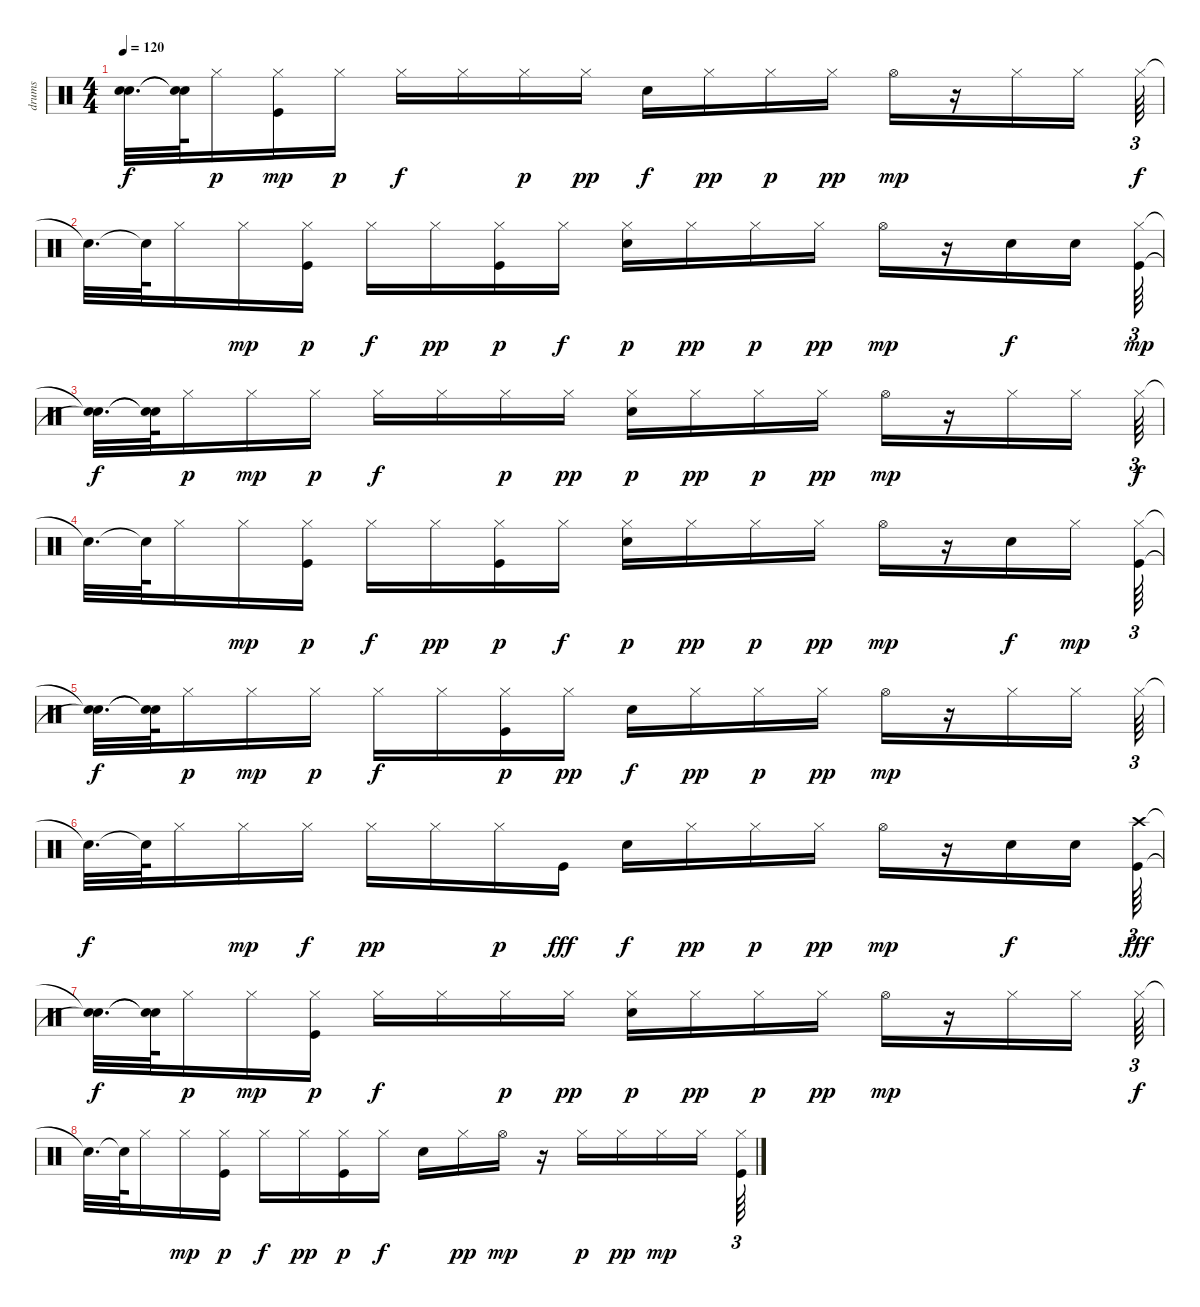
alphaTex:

\track ("drums" "drums") {instrument percussion}
\staff {score}
\articulation defaults
\ts (4 4)
\tempo 120
\clef neutral
\ks c
("Snare (hit)"{t} "Snare (hit)"{t}).32{d dy f} ("Snare (hit)"{t} "Snare (hit)"{t}).64 "Hi-Hat (closed)".16{dy p} ("Kick (hit)" "Hi-Hat (closed)").16{dy mp} "Hi-Hat (closed)".16{dy p} "Hi-Hat (closed)".16{dy f} "Hi-Hat (closed)".16 "Hi-Hat (closed)".16{dy p} "Hi-Hat (closed)".16{dy pp} "Snare (hit) 2".16{dy f} "Hi-Hat (closed)".16{dy pp} "Hi-Hat (closed)".16{dy p} "Hi-Hat (closed)".16{dy pp} "Hi-Hat (open)".16{dy mp} r.16 "Hi-Hat (closed)".16 "Hi-Hat (closed)".16 "Hi-Hat (closed)".64{tu (3 2) dy f} |
"Snare (hit)"{t}.32{d} "Snare (hit)"{t}.64 "Hi-Hat (closed)".16 "Hi-Hat (closed)".16{dy mp} ("Kick (hit)" "Hi-Hat (closed)").16{dy p} "Hi-Hat (closed)".16{dy f} "Hi-Hat (closed)".16{dy pp} ("Kick (hit)" "Hi-Hat (closed)").16{dy p} "Hi-Hat (closed)".16{dy f} ("Snare (hit) 2" "Hi-Hat (closed)").16{dy p} "Hi-Hat (closed)".16{dy pp} "Hi-Hat (closed)".16{dy p} "Hi-Hat (closed)".16{dy pp} "Hi-Hat (open)".16{dy mp} r.16 "Snare (hit) 2".16{dy f} "Snare (hit) 2".16 ("Kick (hit)" "Hi-Hat (closed)").64{tu (3 2) dy mp} |
("Snare (hit)"{t} "Snare (hit)"{t}).32{d dy f} ("Snare (hit)"{t} "Snare (hit)"{t}).64 "Hi-Hat (closed)".16{dy p} "Hi-Hat (closed)".16{dy mp} "Hi-Hat (closed)".16{dy p} "Hi-Hat (closed)".16{dy f} "Hi-Hat (closed)".16 "Hi-Hat (closed)".16{dy p} "Hi-Hat (closed)".16{dy pp} ("Snare (hit) 2" "Hi-Hat (closed)").16{dy p} "Hi-Hat (closed)".16{dy pp} "Hi-Hat (closed)".16{dy p} "Hi-Hat (closed)".16{dy pp} "Hi-Hat (open)".16{dy mp} r.16 "Hi-Hat (closed)".16 "Hi-Hat (closed)".16 "Hi-Hat (closed)".64{tu (3 2) dy f} |
"Snare (hit)"{t}.32{d} "Snare (hit)"{t}.64 "Hi-Hat (closed)".16 "Hi-Hat (closed)".16{dy mp} ("Kick (hit)" "Hi-Hat (closed)").16{dy p} "Hi-Hat (closed)".16{dy f} "Hi-Hat (closed)".16{dy pp} ("Kick (hit)" "Hi-Hat (closed)").16{dy p} "Hi-Hat (closed)".16{dy f} ("Snare (hit) 2" "Hi-Hat (closed)").16{dy p} "Hi-Hat (closed)".16{dy pp} "Hi-Hat (closed)".16{dy p} "Hi-Hat (closed)".16{dy pp} "Hi-Hat (open)".16{dy mp} r.16 "Snare (hit) 2".16{dy f} "Hi-Hat (closed)".16{dy mp} ("Kick (hit)" "Hi-Hat (closed)").64{tu (3 2)} |
("Snare (hit)"{t} "Snare (hit)"{t}).32{d dy f} ("Snare (hit)"{t} "Snare (hit)"{t}).64 "Hi-Hat (closed)".16{dy p} "Hi-Hat (closed)".16{dy mp} "Hi-Hat (closed)".16{dy p} "Hi-Hat (closed)".16{dy f} "Hi-Hat (closed)".16 ("Kick (hit)" "Hi-Hat (closed)").16{dy p} "Hi-Hat (closed)".16{dy pp} "Snare (hit) 2".16{dy f} "Hi-Hat (closed)".16{dy pp} "Hi-Hat (closed)".16{dy p} "Hi-Hat (closed)".16{dy pp} "Hi-Hat (open)".16{dy mp} r.16 "Hi-Hat (closed)".16 "Hi-Hat (closed)".16 "Hi-Hat (closed)".64{tu (3 2)} |
"Snare (hit)"{t}.32{d dy f} "Snare (hit)"{t}.64 "Hi-Hat (closed)".16 "Hi-Hat (closed)".16{dy mp} "Hi-Hat (closed)".16{dy f} "Hi-Hat (closed)".16{dy pp} "Hi-Hat (closed)".16 "Hi-Hat (closed)".16{dy p} "Kick (hit)".16{dy fff} "Snare (hit) 2".16{dy f} "Hi-Hat (closed)".16{dy pp} "Hi-Hat (closed)".16{dy p} "Hi-Hat (closed)".16{dy pp} "Hi-Hat (open)".16{dy mp} r.16 "Snare (hit) 2".16{dy f} "Snare (hit) 2".16 ("Kick (hit)" "Crash high (hit)").64{tu (3 2) dy fff} |
("Snare (hit)"{t} "Snare (hit)"{t}).32{d dy f} ("Snare (hit)"{t} "Snare (hit)"{t}).64 "Hi-Hat (closed)".16{dy p} "Hi-Hat (closed)".16{dy mp} ("Kick (hit)" "Hi-Hat (closed)").16{dy p} "Hi-Hat (closed)".16{dy f} "Hi-Hat (closed)".16 "Hi-Hat (closed)".16{dy p} "Hi-Hat (closed)".16{dy pp} ("Snare (hit) 2" "Hi-Hat (closed)").16{dy p} "Hi-Hat (closed)".16{dy pp} "Hi-Hat (closed)".16{dy p} "Hi-Hat (closed)".16{dy pp} "Hi-Hat (open)".16{dy mp} r.16 "Hi-Hat (closed)".16 "Hi-Hat (closed)".16 "Hi-Hat (closed)".64{tu (3 2) dy f} |
"Snare (hit)"{t}.32{d} "Snare (hit)"{t}.64 "Hi-Hat (closed)".16 "Hi-Hat (closed)".16{dy mp} ("Kick (hit)" "Hi-Hat (closed)").16{dy p} "Hi-Hat (closed)".16{dy f} "Hi-Hat (closed)".16{dy pp} ("Kick (hit)" "Hi-Hat (closed)").16{dy p} "Hi-Hat (closed)".16{dy f} "Snare (hit) 2".16 "Hi-Hat (closed)".16{dy pp} "Hi-Hat (open)".16{dy mp} r.16 "Hi-Hat (closed)".16{dy p} "Hi-Hat (closed)".16{dy pp} "Hi-Hat (closed)".16{dy mp} "Hi-Hat (closed)".16 ("Kick (hit)" "Hi-Hat (closed)").64{tu (3 2)}
